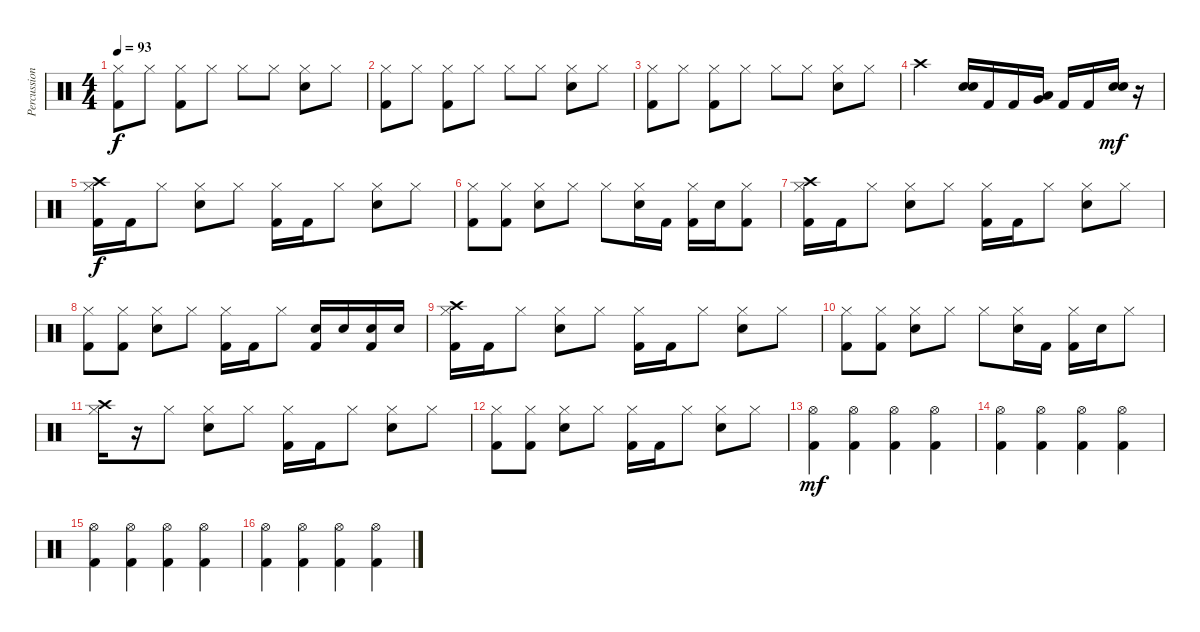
\track ("Percussion" "Percussion") {instrument percussion}
\staff {score}
\articulation defaults
\ts (4 4)
\tempo 93
\clef neutral
\ks c
("Hi-Hat (closed)" "Kick (hit) 2").8{dy f} "Hi-Hat (closed)".8 ("Hi-Hat (closed)" "Kick (hit) 2").8 "Hi-Hat (closed)".8 "Hi-Hat (closed)".8 "Hi-Hat (closed)".8 ("Hi-Hat (closed)" "Electric Snare (hit)").8 "Hi-Hat (closed)".8 |
("Hi-Hat (closed)" "Kick (hit) 2").8 "Hi-Hat (closed)".8 ("Hi-Hat (closed)" "Kick (hit) 2").8 "Hi-Hat (closed)".8 "Hi-Hat (closed)".8 "Hi-Hat (closed)".8 ("Hi-Hat (closed)" "Electric Snare (hit)").8 "Hi-Hat (closed)".8 |
("Hi-Hat (closed)" "Kick (hit) 2").8 "Hi-Hat (closed)".8 ("Hi-Hat (closed)" "Kick (hit) 2").8 "Hi-Hat (closed)".8 "Hi-Hat (closed)".8 "Hi-Hat (closed)".8 ("Hi-Hat (closed)" "Electric Snare (hit)").8 "Hi-Hat (closed)".8 |
"Crash high (hit)".2 ("Electric Snare (hit)" "Electric Snare (hit)").16 "Kick (hit) 2".16 "Kick (hit) 2".16 ("Low Tom (hit)" "Very Low Tom (hit)").16 "Kick (hit) 2".16 "Kick (hit) 2".16 ("Electric Snare (hit)" "Electric Snare (hit)").16{dy mf} r.16 |
("Crash high (hit)" "Hi-Hat (closed)" "Kick (hit) 2").16{dy f} "Kick (hit) 2".16 "Hi-Hat (closed)".8 ("Hi-Hat (closed)" "Electric Snare (hit)").8 "Hi-Hat (closed)".8 ("Hi-Hat (closed)" "Kick (hit) 2").16 "Kick (hit) 2".16 "Hi-Hat (closed)".8 ("Hi-Hat (closed)" "Electric Snare (hit)").8 "Hi-Hat (closed)".8 |
("Hi-Hat (closed)" "Kick (hit) 2").8 ("Hi-Hat (closed)" "Kick (hit) 2").8 ("Hi-Hat (closed)" "Electric Snare (hit)").8 "Hi-Hat (closed)".8 "Hi-Hat (closed)".8 ("Hi-Hat (closed)" "Electric Snare (hit)").16 "Kick (hit) 2".16 ("Hi-Hat (closed)" "Kick (hit) 2").16 "Electric Snare (hit)".16 ("Hi-Hat (closed)" "Kick (hit) 2").8 |
("Crash high (hit)" "Hi-Hat (closed)" "Kick (hit) 2").16 "Kick (hit) 2".16 "Hi-Hat (closed)".8 ("Hi-Hat (closed)" "Electric Snare (hit)").8 "Hi-Hat (closed)".8 ("Hi-Hat (closed)" "Kick (hit) 2").16 "Kick (hit) 2".16 "Hi-Hat (closed)".8 ("Hi-Hat (closed)" "Electric Snare (hit)").8 "Hi-Hat (closed)".8 |
("Hi-Hat (closed)" "Kick (hit) 2").8 ("Hi-Hat (closed)" "Kick (hit) 2").8 ("Hi-Hat (closed)" "Electric Snare (hit)").8 "Hi-Hat (closed)".8 ("Hi-Hat (closed)" "Kick (hit) 2").16 "Kick (hit) 2".16 "Hi-Hat (closed)".8 ("Electric Snare (hit)" "Kick (hit) 2").16 "Electric Snare (hit)".16 ("Electric Snare (hit)" "Kick (hit) 2").16 "Electric Snare (hit)".16 |
("Crash high (hit)" "Hi-Hat (closed)" "Kick (hit) 2").16 "Kick (hit) 2".16 "Hi-Hat (closed)".8 ("Hi-Hat (closed)" "Electric Snare (hit)").8 "Hi-Hat (closed)".8 ("Hi-Hat (closed)" "Kick (hit) 2").16 "Kick (hit) 2".16 "Hi-Hat (closed)".8 ("Hi-Hat (closed)" "Electric Snare (hit)").8 "Hi-Hat (closed)".8 |
("Hi-Hat (closed)" "Kick (hit) 2").8 ("Hi-Hat (closed)" "Kick (hit) 2").8 ("Hi-Hat (closed)" "Electric Snare (hit)").8 "Hi-Hat (closed)".8 "Hi-Hat (closed)".8 ("Hi-Hat (closed)" "Electric Snare (hit)").16 "Kick (hit) 2".16 ("Hi-Hat (closed)" "Kick (hit) 2").16 "Electric Snare (hit)".16 "Hi-Hat (closed)".8 |
("Crash high (hit)" "Hi-Hat (closed)").16 r.16 "Hi-Hat (closed)".8 ("Hi-Hat (closed)" "Electric Snare (hit)").8 "Hi-Hat (closed)".8 ("Hi-Hat (closed)" "Kick (hit) 2").16 "Kick (hit) 2".16 "Hi-Hat (closed)".8 ("Hi-Hat (closed)" "Electric Snare (hit)").8 "Hi-Hat (closed)".8 |
("Hi-Hat (closed)" "Kick (hit) 2").8 ("Hi-Hat (closed)" "Kick (hit) 2").8 ("Hi-Hat (closed)" "Electric Snare (hit)").8 "Hi-Hat (closed)".8 ("Hi-Hat (closed)" "Kick (hit) 2").16 "Kick (hit) 2".16 "Hi-Hat (closed)".8 ("Hi-Hat (closed)" "Electric Snare (hit)").8 "Hi-Hat (closed)".8 |
("Hi-Hat (open)" "Kick (hit) 2").4{dy mf} ("Hi-Hat (open)" "Kick (hit) 2").4 ("Hi-Hat (open)" "Kick (hit) 2").4 ("Hi-Hat (open)" "Kick (hit) 2").4 |
("Hi-Hat (open)" "Kick (hit) 2").4 ("Hi-Hat (open)" "Kick (hit) 2").4 ("Hi-Hat (open)" "Kick (hit) 2").4 ("Hi-Hat (open)" "Kick (hit) 2").4 |
("Hi-Hat (open)" "Kick (hit) 2").4 ("Hi-Hat (open)" "Kick (hit) 2").4 ("Hi-Hat (open)" "Kick (hit) 2").4 ("Hi-Hat (open)" "Kick (hit) 2").4 |
("Hi-Hat (open)" "Kick (hit) 2").4 ("Hi-Hat (open)" "Kick (hit) 2").4 ("Hi-Hat (open)" "Kick (hit) 2").4 ("Hi-Hat (open)" "Kick (hit) 2").4
